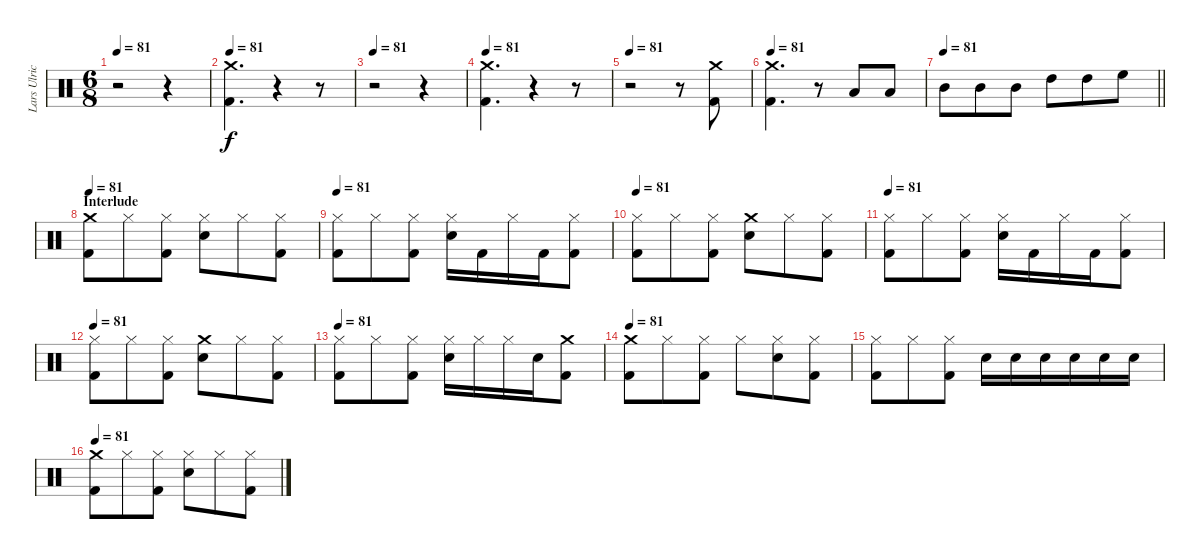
\track ("Lars Ulrich (Drums)" "Lars Ulric") {instrument percussion}
\staff {score}
\articulation defaults
\ts (6 8)
\tempo 81
\clef neutral
\ks c
r.2{dy f} r.4 |
\tempo 81
("Kick (hit) 2" "Crash medium (hit)").4{d} r.4 r.8 |
\tempo 81
r.2 r.4 |
\tempo 81
("Crash medium (hit)" "Kick (hit) 2").4{d} r.4 r.8 |
\tempo 81
r.2 r.8 ("Kick (hit) 2" "Crash medium (hit)").8 |
\tempo 81
("Kick (hit) 2" "Crash medium (hit)").4{d} r.8 "Low Tom (hit)".8 "Low Tom (hit)".8 |
\tempo 81
\barLineRight lightlight "Mid Tom (hit)".8 "Mid Tom (hit)".8 "Mid Tom (hit)".8 "High Tom (hit)".8 "High Tom (hit)".8 "High Floor Tom (hit)".8
|
\section ("" "Interlude")
\tempo 81
("Kick (hit) 2" "Crash medium (hit)").8 "Hi-Hat (closed)".8 ("Kick (hit) 2" "Hi-Hat (closed)").8 ("Hi-Hat (closed)" "Snare (hit) 2").8 "Hi-Hat (closed)".8 ("Kick (hit) 2" "Hi-Hat (closed)").8 |
\tempo 81
("Hi-Hat (closed)" "Kick (hit) 2").8 "Hi-Hat (closed)".8 ("Kick (hit) 2" "Hi-Hat (closed)").8 ("Hi-Hat (closed)" "Snare (hit) 2").16 "Kick (hit) 2".16 "Hi-Hat (closed)".16 "Kick (hit) 2".16 ("Kick (hit) 2" "Hi-Hat (closed)").8 |
\tempo 81
("Hi-Hat (closed)" "Kick (hit) 2").8 "Hi-Hat (closed)".8 ("Hi-Hat (closed)" "Kick (hit) 2").8 ("Crash medium (hit)" "Snare (hit) 2").8 "Hi-Hat (closed)".8 ("Kick (hit) 2" "Hi-Hat (closed)").8 |
\tempo 81
("Hi-Hat (closed)" "Kick (hit) 2").8 "Hi-Hat (closed)".8 ("Kick (hit) 2" "Hi-Hat (closed)").8 ("Hi-Hat (closed)" "Snare (hit) 2").16 "Kick (hit) 2".16 "Hi-Hat (closed)".16 "Kick (hit) 2".16 ("Kick (hit) 2" "Hi-Hat (closed)").8 |
\tempo 81
("Hi-Hat (closed)" "Kick (hit) 2").8 "Hi-Hat (closed)".8 ("Hi-Hat (closed)" "Kick (hit) 2").8 ("Crash medium (hit)" "Snare (hit) 2").8 "Hi-Hat (closed)".8 ("Kick (hit) 2" "Hi-Hat (closed)").8 |
\tempo 81
("Kick (hit) 2" "Hi-Hat (closed)").8 "Hi-Hat (closed)".8 ("Kick (hit) 2" "Hi-Hat (closed)").8 ("Hi-Hat (closed)" "Snare (hit) 2").16 "Hi-Hat (closed)".16 "Hi-Hat (closed)".16 "Snare (hit) 2".16 ("Crash medium (hit)" "Kick (hit) 2").8 |
\tempo 81
("Kick (hit) 2" "Crash medium (hit)").8 "Hi-Hat (closed)".8 ("Kick (hit) 2" "Hi-Hat (closed)").8 "Hi-Hat (closed)".8 ("Snare (hit) 2" "Hi-Hat (closed)").8 ("Kick (hit) 2" "Hi-Hat (closed)").8 |
("Hi-Hat (closed)" "Kick (hit) 2").8 "Hi-Hat (closed)".8 ("Hi-Hat (closed)" "Kick (hit) 2").8 "Snare (hit) 2".16 "Snare (hit) 2".16 "Snare (hit) 2".16 "Snare (hit) 2".16 "Snare (hit) 2".16 "Snare (hit) 2".16 |
\tempo 81
("Crash medium (hit)" "Kick (hit) 2").8 "Hi-Hat (closed)".8 ("Kick (hit) 2" "Hi-Hat (closed)").8 ("Snare (hit) 2" "Hi-Hat (closed)").8 "Hi-Hat (closed)".8 ("Kick (hit) 2" "Hi-Hat (closed)").8
